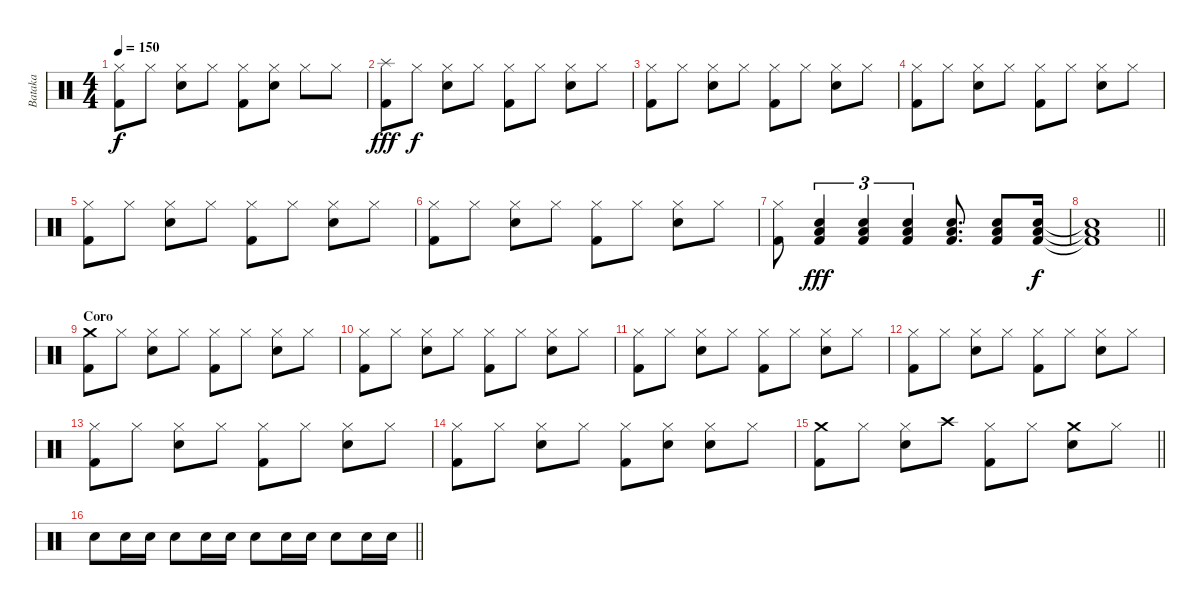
\track ("Bataka" "Bataka") {instrument percussion}
\staff {score}
\articulation defaults
\ts (4 4)
\tempo 150
\clef neutral
\ks c
("Hi-Hat (closed)" "Kick (hit) 2").8{dy f} "Hi-Hat (closed)".8 ("Hi-Hat (closed)" "Snare (hit) 2").8 "Hi-Hat (closed)".8 ("Hi-Hat (closed)" "Kick (hit) 2").8 ("Hi-Hat (closed)" "Snare (hit) 2").8 "Hi-Hat (closed)".8 "Hi-Hat (closed)".8 |
("Splash (hit)" "Kick (hit) 2").8{dy fff} "Hi-Hat (closed)".8{dy f} ("Hi-Hat (closed)" "Snare (hit) 2").8 "Hi-Hat (closed)".8 ("Hi-Hat (closed)" "Kick (hit) 2").8 "Hi-Hat (closed)".8 ("Hi-Hat (closed)" "Snare (hit) 2").8 "Hi-Hat (closed)".8 |
("Hi-Hat (closed)" "Kick (hit) 2").8 "Hi-Hat (closed)".8 ("Hi-Hat (closed)" "Snare (hit) 2").8 "Hi-Hat (closed)".8 ("Hi-Hat (closed)" "Kick (hit) 2").8 "Hi-Hat (closed)".8 ("Hi-Hat (closed)" "Snare (hit) 2").8 "Hi-Hat (closed)".8 |
("Hi-Hat (closed)" "Kick (hit) 2").8 "Hi-Hat (closed)".8 ("Hi-Hat (closed)" "Snare (hit) 2").8 "Hi-Hat (closed)".8 ("Hi-Hat (closed)" "Kick (hit) 2").8 "Hi-Hat (closed)".8 ("Hi-Hat (closed)" "Snare (hit) 2").8 "Hi-Hat (closed)".8 |
("Hi-Hat (closed)" "Kick (hit) 2").8 "Hi-Hat (closed)".8 ("Hi-Hat (closed)" "Snare (hit) 2").8 "Hi-Hat (closed)".8 ("Hi-Hat (closed)" "Kick (hit) 2").8 "Hi-Hat (closed)".8 ("Hi-Hat (closed)" "Snare (hit) 2").8 "Hi-Hat (closed)".8 |
("Hi-Hat (closed)" "Kick (hit) 2").8 "Hi-Hat (closed)".8 ("Hi-Hat (closed)" "Snare (hit) 2").8 "Hi-Hat (closed)".8 ("Hi-Hat (closed)" "Kick (hit) 2").8 "Hi-Hat (closed)".8 ("Hi-Hat (closed)" "Snare (hit) 2").8 "Hi-Hat (closed)".8 |
("Hi-Hat (closed)" "Kick (hit) 2").8 ("Snare (hit) 2" "Low Tom (hit)" "Kick (hit) 2").4{tu (3 2) dy fff} ("Snare (hit) 2" "Low Tom (hit)" "Kick (hit) 2").4{tu (3 2)} ("Snare (hit) 2" "Low Tom (hit)" "Kick (hit) 2").4{tu (3 2)} ("Snare (hit) 2" "Low Tom (hit)" "Kick (hit) 2").8{d} ("Snare (hit) 2" "Low Tom (hit)" "Kick (hit) 2").8 ("Snare (hit) 2" "Low Tom (hit)" "Kick (hit) 2").16{dy f} |
\barLineRight lightlight
("Snare (hit) 2"{t} "Low Tom (hit)"{t} "Kick (hit) 2"{t}).1 |
\section ("" "Coro")
("Crash medium (hit)" "Kick (hit) 2").8 "Hi-Hat (closed)".8 ("Hi-Hat (closed)" "Snare (hit) 2").8 "Hi-Hat (closed)".8 ("Hi-Hat (closed)" "Kick (hit) 2").8 "Hi-Hat (closed)".8 ("Hi-Hat (closed)" "Snare (hit) 2").8 "Hi-Hat (closed)".8 |
("Hi-Hat (closed)" "Kick (hit) 2").8 "Hi-Hat (closed)".8 ("Hi-Hat (closed)" "Snare (hit) 2").8 "Hi-Hat (closed)".8 ("Hi-Hat (closed)" "Kick (hit) 2").8 "Hi-Hat (closed)".8 ("Hi-Hat (closed)" "Snare (hit) 2").8 "Hi-Hat (closed)".8 |
("Hi-Hat (closed)" "Kick (hit) 2").8 "Hi-Hat (closed)".8 ("Hi-Hat (closed)" "Snare (hit) 2").8 "Hi-Hat (closed)".8 ("Hi-Hat (closed)" "Kick (hit) 2").8 "Hi-Hat (closed)".8 ("Hi-Hat (closed)" "Snare (hit) 2").8 "Hi-Hat (closed)".8 |
("Hi-Hat (closed)" "Kick (hit) 2").8 "Hi-Hat (closed)".8 ("Hi-Hat (closed)" "Snare (hit) 2").8 "Hi-Hat (closed)".8 ("Hi-Hat (closed)" "Kick (hit) 2").8 "Hi-Hat (closed)".8 ("Hi-Hat (closed)" "Snare (hit) 2").8 "Hi-Hat (closed)".8 |
("Hi-Hat (closed)" "Kick (hit) 2").8 "Hi-Hat (closed)".8 ("Hi-Hat (closed)" "Snare (hit) 2").8 "Hi-Hat (closed)".8 ("Hi-Hat (closed)" "Kick (hit) 2").8 "Hi-Hat (closed)".8 ("Hi-Hat (closed)" "Snare (hit) 2").8 "Hi-Hat (closed)".8 |
("Hi-Hat (closed)" "Kick (hit) 2").8 "Hi-Hat (closed)".8 ("Hi-Hat (closed)" "Snare (hit) 2").8 "Hi-Hat (closed)".8 ("Hi-Hat (closed)" "Kick (hit) 2").8 ("Hi-Hat (closed)" "Snare (hit) 2").8 ("Hi-Hat (closed)" "Snare (hit) 2").8 "Hi-Hat (closed)".8 |
\barLineRight lightlight
("Crash medium (hit)" "Kick (hit) 2").8 "Hi-Hat (closed)".8 ("Hi-Hat (closed)" "Snare (hit) 2").8 "Crash high (hit)".8 ("Hi-Hat (closed)" "Kick (hit) 2").8 "Hi-Hat (closed)".8 ("Crash medium (hit)" "Snare (hit) 2").8 "Hi-Hat (closed)".8 |
\barLineRight lightlight "Snare (hit) 2".8 "Snare (hit) 2".16 "Snare (hit) 2".16 "Snare (hit) 2".8 "Snare (hit) 2".16 "Snare (hit) 2".16 "Snare (hit) 2".8 "Snare (hit) 2".16 "Snare (hit) 2".16 "Snare (hit) 2".8 "Snare (hit) 2".16 "Snare (hit) 2".16
